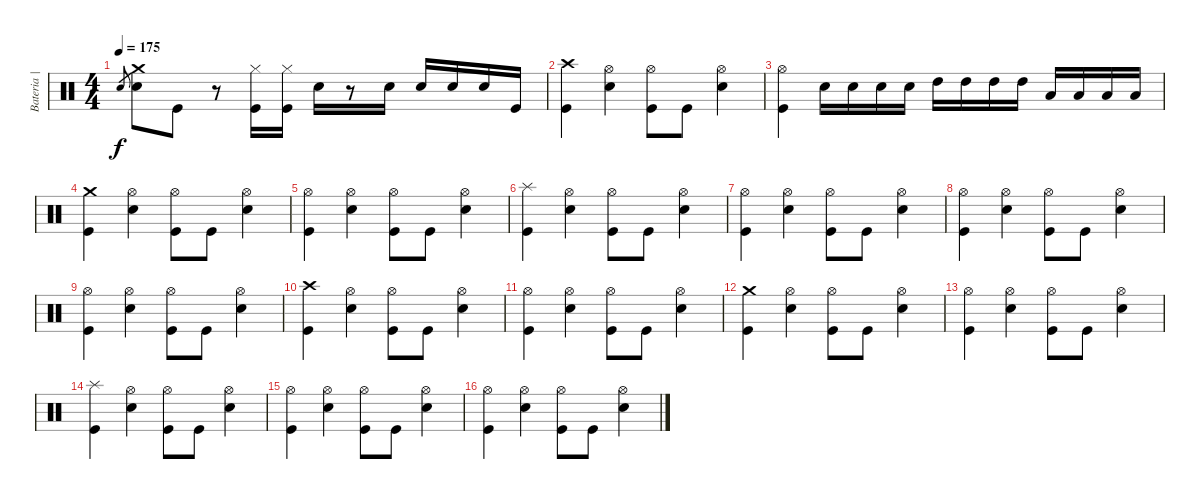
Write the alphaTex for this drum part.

\track ("Bateria | Fabinho" "Bateria | ") {instrument percussion}
\staff {score}
\articulation defaults
\ts (4 4)
\tempo 175
\clef neutral
\ks c "Snare (hit) 2".8{gr dy f}
("Crash medium (hit)" "Snare (hit) 2").8 "Kick (hit)".8 r.8 ("Hi-Hat (closed)" "Kick (hit)").16 ("Hi-Hat (closed)" "Kick (hit)").16 "Snare (hit) 2".16 r.8 "Snare (hit) 2".16 "Snare (hit) 2".16 "Snare (hit) 2".16 "Snare (hit) 2".16 "Kick (hit)".16 |
("Crash high (hit)" "Kick (hit)").4 ("Hi-Hat (open)" "Snare (hit) 2").4 ("Hi-Hat (open)" "Kick (hit)").8 "Kick (hit)".8 ("Hi-Hat (open)" "Snare (hit) 2").4 |
("Hi-Hat (open)" "Kick (hit)").4 "Snare (hit) 2".16 "Snare (hit) 2".16 "Snare (hit) 2".16 "Snare (hit) 2".16 "High Tom (hit)".16 "High Tom (hit)".16 "High Tom (hit)".16 "High Tom (hit)".16 "Low Tom (hit)".16 "Low Tom (hit)".16 "Low Tom (hit)".16 "Low Tom (hit)".16 |
("Crash medium (hit)" "Kick (hit)").4 ("Hi-Hat (open)" "Snare (hit) 2").4 ("Hi-Hat (open)" "Kick (hit)").8 "Kick (hit)".8 ("Hi-Hat (open)" "Snare (hit) 2").4 |
("Hi-Hat (open)" "Kick (hit)").4 ("Hi-Hat (open)" "Snare (hit) 2").4 ("Hi-Hat (open)" "Kick (hit)").8 "Kick (hit)".8 ("Hi-Hat (open)" "Snare (hit) 2").4 |
("Splash (hit)" "Kick (hit)").4 ("Hi-Hat (open)" "Snare (hit) 2").4 ("Hi-Hat (open)" "Kick (hit)").8 "Kick (hit)".8 ("Hi-Hat (open)" "Snare (hit) 2").4 |
("Hi-Hat (open)" "Kick (hit)").4 ("Hi-Hat (open)" "Snare (hit) 2").4 ("Hi-Hat (open)" "Kick (hit)").8 "Kick (hit)".8 ("Hi-Hat (open)" "Snare (hit) 2").4 |
("Hi-Hat (open)" "Kick (hit)").4 ("Hi-Hat (open)" "Snare (hit) 2").4 ("Hi-Hat (open)" "Kick (hit)").8 "Kick (hit)".8 ("Hi-Hat (open)" "Snare (hit) 2").4 |
("Hi-Hat (open)" "Kick (hit)").4 ("Hi-Hat (open)" "Snare (hit) 2").4 ("Hi-Hat (open)" "Kick (hit)").8 "Kick (hit)".8 ("Hi-Hat (open)" "Snare (hit) 2").4 |
("Crash high (hit)" "Kick (hit)").4 ("Hi-Hat (open)" "Snare (hit) 2").4 ("Hi-Hat (open)" "Kick (hit)").8 "Kick (hit)".8 ("Hi-Hat (open)" "Snare (hit) 2").4 |
("Hi-Hat (open)" "Kick (hit)").4 ("Hi-Hat (open)" "Snare (hit) 2").4 ("Hi-Hat (open)" "Kick (hit)").8 "Kick (hit)".8 ("Hi-Hat (open)" "Snare (hit) 2").4 |
("Crash medium (hit)" "Kick (hit)").4 ("Hi-Hat (open)" "Snare (hit) 2").4 ("Hi-Hat (open)" "Kick (hit)").8 "Kick (hit)".8 ("Hi-Hat (open)" "Snare (hit) 2").4 |
("Hi-Hat (open)" "Kick (hit)").4 ("Hi-Hat (open)" "Snare (hit) 2").4 ("Hi-Hat (open)" "Kick (hit)").8 "Kick (hit)".8 ("Hi-Hat (open)" "Snare (hit) 2").4 |
("Splash (hit)" "Kick (hit)").4 ("Hi-Hat (open)" "Snare (hit) 2").4 ("Hi-Hat (open)" "Kick (hit)").8 "Kick (hit)".8 ("Hi-Hat (open)" "Snare (hit) 2").4 |
("Hi-Hat (open)" "Kick (hit)").4 ("Hi-Hat (open)" "Snare (hit) 2").4 ("Hi-Hat (open)" "Kick (hit)").8 "Kick (hit)".8 ("Hi-Hat (open)" "Snare (hit) 2").4 |
("Hi-Hat (open)" "Kick (hit)").4 ("Hi-Hat (open)" "Snare (hit) 2").4 ("Hi-Hat (open)" "Kick (hit)").8 "Kick (hit)".8 ("Hi-Hat (open)" "Snare (hit) 2").4
